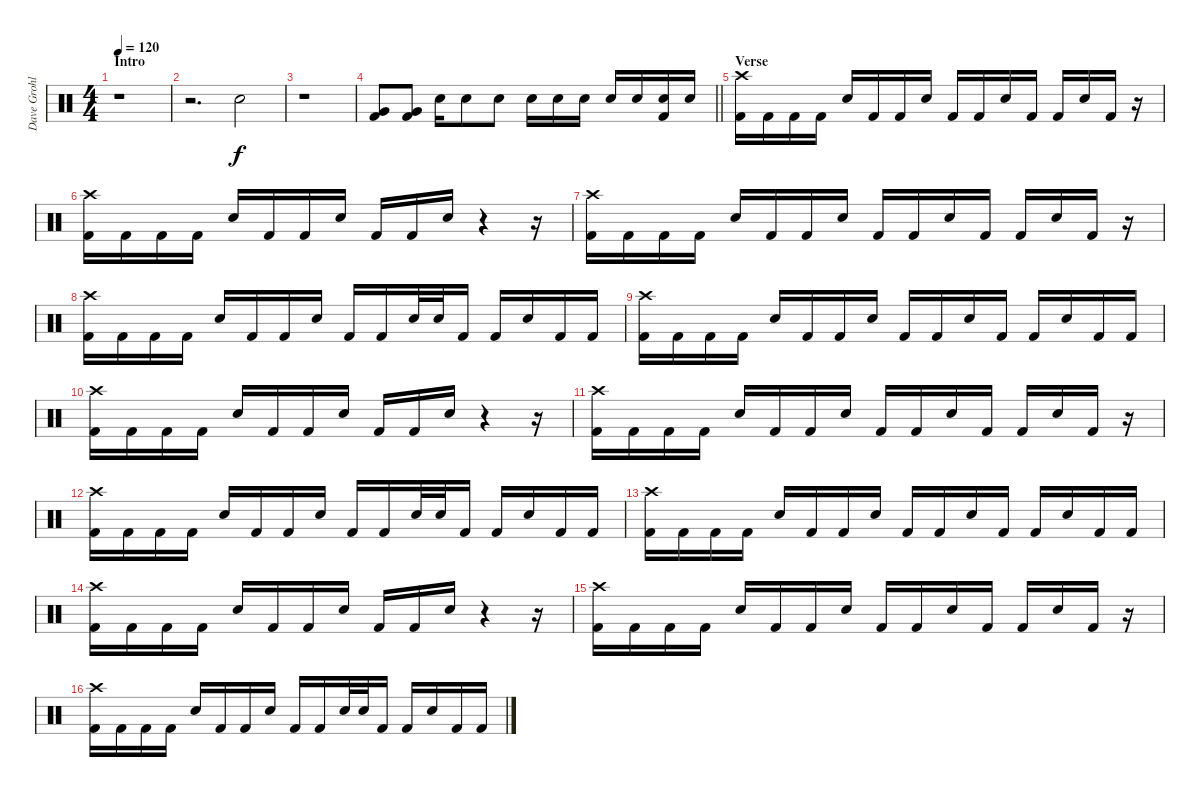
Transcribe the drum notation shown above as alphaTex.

\track ("Dave Grohl" "Dave Grohl") {instrument percussion}
\staff {score}
\articulation defaults
\ts (4 4)
\section ("" "Intro")
\tempo 120
\clef neutral
\ks c
r.1{dy f} |
r.2{d} "Snare (hit) 2".2 |
r.1 |
\barLineRight lightlight
("Very Low Tom (hit)" "Kick (hit) 2").8 ("Very Low Tom (hit)" "Kick (hit) 2").8 "Snare (hit) 2".16 "Snare (hit) 2".8 "Snare (hit) 2".8 "Snare (hit) 2".16 "Snare (hit) 2".16 "Snare (hit) 2".16 "Snare (hit) 2".16 "Snare (hit) 2".16 ("Snare (hit) 2" "Kick (hit) 2").16 "Snare (hit) 2".16 |
\section ("" "Verse")
("Crash high (hit)" "Kick (hit) 2").16 "Kick (hit) 2".16 "Kick (hit) 2".16 "Kick (hit) 2".16 "Snare (hit) 2".16 "Kick (hit) 2".16 "Kick (hit) 2".16 "Snare (hit) 2".16 "Kick (hit) 2".16 "Kick (hit) 2".16 "Snare (hit) 2".16 "Kick (hit) 2".16 "Kick (hit) 2".16 "Snare (hit) 2".16 "Kick (hit) 2".16 r.16 |
("Crash high (hit)" "Kick (hit) 2").16 "Kick (hit) 2".16 "Kick (hit) 2".16 "Kick (hit) 2".16 "Snare (hit) 2".16 "Kick (hit) 2".16 "Kick (hit) 2".16 "Snare (hit) 2".16 "Kick (hit) 2".16 "Kick (hit) 2".16 "Snare (hit) 2".16 r.4 r.16 |
("Crash high (hit)" "Kick (hit) 2").16 "Kick (hit) 2".16 "Kick (hit) 2".16 "Kick (hit) 2".16 "Snare (hit) 2".16 "Kick (hit) 2".16 "Kick (hit) 2".16 "Snare (hit) 2".16 "Kick (hit) 2".16 "Kick (hit) 2".16 "Snare (hit) 2".16 "Kick (hit) 2".16 "Kick (hit) 2".16 "Snare (hit) 2".16 "Kick (hit) 2".16 r.16 |
("Crash high (hit)" "Kick (hit) 2").16 "Kick (hit) 2".16 "Kick (hit) 2".16 "Kick (hit) 2".16 "Snare (hit) 2".16 "Kick (hit) 2".16 "Kick (hit) 2".16 "Snare (hit) 2".16 "Kick (hit) 2".16 "Kick (hit) 2".16 "Snare (hit) 2".32 "Snare (hit) 2".32 "Kick (hit) 2".16 "Kick (hit) 2".16 "Snare (hit) 2".16 "Kick (hit) 2".16 "Kick (hit) 2".16 |
("Crash high (hit)" "Kick (hit) 2").16 "Kick (hit) 2".16 "Kick (hit) 2".16 "Kick (hit) 2".16 "Snare (hit) 2".16 "Kick (hit) 2".16 "Kick (hit) 2".16 "Snare (hit) 2".16 "Kick (hit) 2".16 "Kick (hit) 2".16 "Snare (hit) 2".16 "Kick (hit) 2".16 "Kick (hit) 2".16 "Snare (hit) 2".16 "Kick (hit) 2".16 "Kick (hit) 2".16 |
("Crash high (hit)" "Kick (hit) 2").16 "Kick (hit) 2".16 "Kick (hit) 2".16 "Kick (hit) 2".16 "Snare (hit) 2".16 "Kick (hit) 2".16 "Kick (hit) 2".16 "Snare (hit) 2".16 "Kick (hit) 2".16 "Kick (hit) 2".16 "Snare (hit) 2".16 r.4 r.16 |
("Crash high (hit)" "Kick (hit) 2").16 "Kick (hit) 2".16 "Kick (hit) 2".16 "Kick (hit) 2".16 "Snare (hit) 2".16 "Kick (hit) 2".16 "Kick (hit) 2".16 "Snare (hit) 2".16 "Kick (hit) 2".16 "Kick (hit) 2".16 "Snare (hit) 2".16 "Kick (hit) 2".16 "Kick (hit) 2".16 "Snare (hit) 2".16 "Kick (hit) 2".16 r.16 |
("Crash high (hit)" "Kick (hit) 2").16 "Kick (hit) 2".16 "Kick (hit) 2".16 "Kick (hit) 2".16 "Snare (hit) 2".16 "Kick (hit) 2".16 "Kick (hit) 2".16 "Snare (hit) 2".16 "Kick (hit) 2".16 "Kick (hit) 2".16 "Snare (hit) 2".32 "Snare (hit) 2".32 "Kick (hit) 2".16 "Kick (hit) 2".16 "Snare (hit) 2".16 "Kick (hit) 2".16 "Kick (hit) 2".16 |
("Crash high (hit)" "Kick (hit) 2").16 "Kick (hit) 2".16 "Kick (hit) 2".16 "Kick (hit) 2".16 "Snare (hit) 2".16 "Kick (hit) 2".16 "Kick (hit) 2".16 "Snare (hit) 2".16 "Kick (hit) 2".16 "Kick (hit) 2".16 "Snare (hit) 2".16 "Kick (hit) 2".16 "Kick (hit) 2".16 "Snare (hit) 2".16 "Kick (hit) 2".16 "Kick (hit) 2".16 |
("Crash high (hit)" "Kick (hit) 2").16 "Kick (hit) 2".16 "Kick (hit) 2".16 "Kick (hit) 2".16 "Snare (hit) 2".16 "Kick (hit) 2".16 "Kick (hit) 2".16 "Snare (hit) 2".16 "Kick (hit) 2".16 "Kick (hit) 2".16 "Snare (hit) 2".16 r.4 r.16 |
("Crash high (hit)" "Kick (hit) 2").16 "Kick (hit) 2".16 "Kick (hit) 2".16 "Kick (hit) 2".16 "Snare (hit) 2".16 "Kick (hit) 2".16 "Kick (hit) 2".16 "Snare (hit) 2".16 "Kick (hit) 2".16 "Kick (hit) 2".16 "Snare (hit) 2".16 "Kick (hit) 2".16 "Kick (hit) 2".16 "Snare (hit) 2".16 "Kick (hit) 2".16 r.16 |
("Crash high (hit)" "Kick (hit) 2").16 "Kick (hit) 2".16 "Kick (hit) 2".16 "Kick (hit) 2".16 "Snare (hit) 2".16 "Kick (hit) 2".16 "Kick (hit) 2".16 "Snare (hit) 2".16 "Kick (hit) 2".16 "Kick (hit) 2".16 "Snare (hit) 2".32 "Snare (hit) 2".32 "Kick (hit) 2".16 "Kick (hit) 2".16 "Snare (hit) 2".16 "Kick (hit) 2".16 "Kick (hit) 2".16
